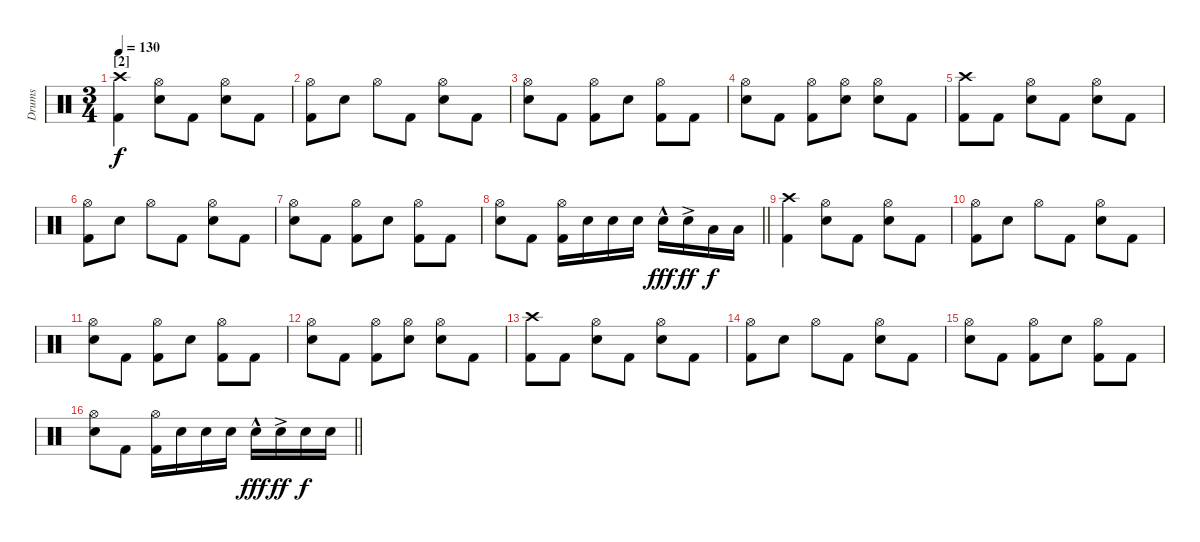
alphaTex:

\track ("Drums" "Drums") {instrument percussion}
\staff {score}
\articulation defaults
\ts (3 4)
\section ("" "[2]")
\tempo 130
\clef neutral
\ks c
("Crash high (hit)" "Kick (hit) 2").4{dy f} ("Hi-Hat (open)" "Electric Snare (hit)").8 "Kick (hit) 2".8 ("Hi-Hat (open)" "Electric Snare (hit)").8 "Kick (hit) 2".8 |
("Hi-Hat (open)" "Kick (hit) 2").8 "Electric Snare (hit)".8 "Hi-Hat (open)".8 "Kick (hit) 2".8 ("Hi-Hat (open)" "Electric Snare (hit)").8 "Kick (hit) 2".8 |
("Hi-Hat (open)" "Electric Snare (hit)").8 "Kick (hit) 2".8 ("Hi-Hat (open)" "Kick (hit) 2").8 "Electric Snare (hit)".8 ("Hi-Hat (open)" "Kick (hit) 2").8 "Kick (hit) 2".8 |
("Hi-Hat (open)" "Electric Snare (hit)").8 "Kick (hit) 2".8 ("Hi-Hat (open)" "Kick (hit) 2").8 ("Hi-Hat (open)" "Electric Snare (hit)").8 ("Hi-Hat (open)" "Electric Snare (hit)").8 "Kick (hit) 2".8 |
("Crash high (hit)" "Kick (hit) 2").8 "Kick (hit) 2".8 ("Hi-Hat (open)" "Electric Snare (hit)").8 "Kick (hit) 2".8 ("Hi-Hat (open)" "Electric Snare (hit)").8 "Kick (hit) 2".8 |
("Hi-Hat (open)" "Kick (hit) 2").8 "Electric Snare (hit)".8 "Hi-Hat (open)".8 "Kick (hit) 2".8 ("Hi-Hat (open)" "Electric Snare (hit)").8 "Kick (hit) 2".8 |
("Hi-Hat (open)" "Electric Snare (hit)").8 "Kick (hit) 2".8 ("Hi-Hat (open)" "Kick (hit) 2").8 "Electric Snare (hit)".8 ("Hi-Hat (open)" "Kick (hit) 2").8 "Kick (hit) 2".8 |
\barLineRight lightlight
("Hi-Hat (open)" "Electric Snare (hit)").8 "Kick (hit) 2".8 ("Hi-Hat (open)" "Kick (hit) 2").16 "Electric Snare (hit)".16 "Electric Snare (hit)".16 "Electric Snare (hit)".16 "Electric Snare (hit)"{hac}.16{dy fff} "Electric Snare (hit)"{ac}.16{dy ff} "Low Tom (hit)".16{dy f} "Low Tom (hit)".16 |
\section ("" "")
("Crash high (hit)" "Kick (hit) 2").4 ("Hi-Hat (open)" "Electric Snare (hit)").8 "Kick (hit) 2".8 ("Hi-Hat (open)" "Electric Snare (hit)").8 "Kick (hit) 2".8 |
("Hi-Hat (open)" "Kick (hit) 2").8 "Electric Snare (hit)".8 "Hi-Hat (open)".8 "Kick (hit) 2".8 ("Hi-Hat (open)" "Electric Snare (hit)").8 "Kick (hit) 2".8 |
("Hi-Hat (open)" "Electric Snare (hit)").8 "Kick (hit) 2".8 ("Hi-Hat (open)" "Kick (hit) 2").8 "Electric Snare (hit)".8 ("Hi-Hat (open)" "Kick (hit) 2").8 "Kick (hit) 2".8 |
("Hi-Hat (open)" "Electric Snare (hit)").8 "Kick (hit) 2".8 ("Hi-Hat (open)" "Kick (hit) 2").8 ("Hi-Hat (open)" "Electric Snare (hit)").8 ("Hi-Hat (open)" "Electric Snare (hit)").8 "Kick (hit) 2".8 |
("Crash high (hit)" "Kick (hit) 2").8 "Kick (hit) 2".8 ("Hi-Hat (open)" "Electric Snare (hit)").8 "Kick (hit) 2".8 ("Hi-Hat (open)" "Electric Snare (hit)").8 "Kick (hit) 2".8 |
("Hi-Hat (open)" "Kick (hit) 2").8 "Electric Snare (hit)".8 "Hi-Hat (open)".8 "Kick (hit) 2".8 ("Hi-Hat (open)" "Electric Snare (hit)").8 "Kick (hit) 2".8 |
("Hi-Hat (open)" "Electric Snare (hit)").8 "Kick (hit) 2".8 ("Hi-Hat (open)" "Kick (hit) 2").8 "Electric Snare (hit)".8 ("Hi-Hat (open)" "Kick (hit) 2").8 "Kick (hit) 2".8 |
\barLineRight lightlight
("Hi-Hat (open)" "Electric Snare (hit)").8 "Kick (hit) 2".8 ("Hi-Hat (open)" "Kick (hit) 2").16 "Electric Snare (hit)".16 "Electric Snare (hit)".16 "Electric Snare (hit)".16 "Electric Snare (hit)"{hac}.16{dy fff} "Electric Snare (hit)"{ac}.16{dy ff} "Electric Snare (hit)".16{dy f} "Electric Snare (hit)".16
